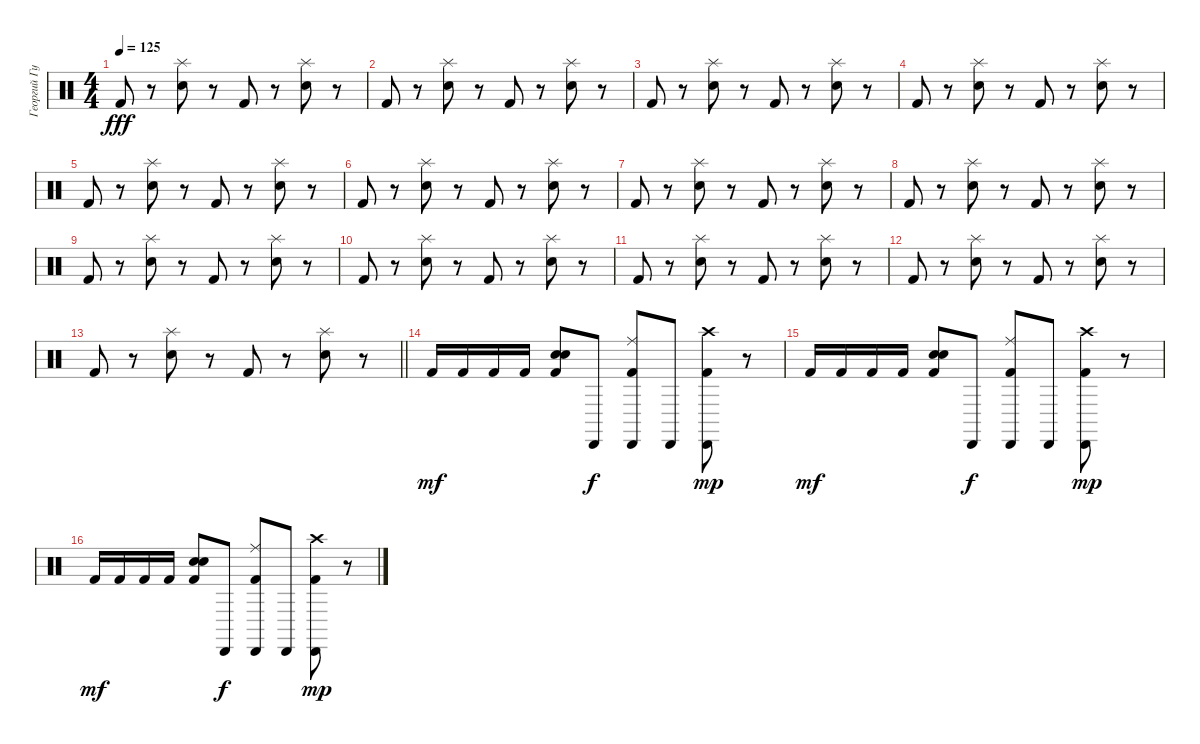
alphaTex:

\track ("Георгий Гурьянов" "Георгий Гу") {instrument percussion}
\staff {score}
\articulation defaults
\ts (4 4)
\tempo 125
\clef neutral
\ks c "Kick (hit) 2".8{dy fff}
r.8 ("Snare (hit) 2" "Splash (hit)").8 r.8 "Kick (hit) 2".8 r.8 ("Snare (hit) 2" "Splash (hit)").8 r.8 |
"Kick (hit) 2".8 r.8 ("Snare (hit) 2" "Splash (hit)").8 r.8 "Kick (hit) 2".8 r.8 ("Snare (hit) 2" "Splash (hit)").8 r.8 |
"Kick (hit) 2".8 r.8 ("Snare (hit) 2" "Splash (hit)").8 r.8 "Kick (hit) 2".8 r.8 ("Snare (hit) 2" "Splash (hit)").8 r.8 |
"Kick (hit) 2".8 r.8 ("Snare (hit) 2" "Splash (hit)").8 r.8 "Kick (hit) 2".8 r.8 ("Snare (hit) 2" "Splash (hit)").8 r.8 |
"Kick (hit) 2".8 r.8 ("Snare (hit) 2" "Splash (hit)").8 r.8 "Kick (hit) 2".8 r.8 ("Snare (hit) 2" "Splash (hit)").8 r.8 |
"Kick (hit) 2".8 r.8 ("Snare (hit) 2" "Splash (hit)").8 r.8 "Kick (hit) 2".8 r.8 ("Snare (hit) 2" "Splash (hit)").8 r.8 |
"Kick (hit) 2".8 r.8 ("Snare (hit) 2" "Splash (hit)").8 r.8 "Kick (hit) 2".8 r.8 ("Snare (hit) 2" "Splash (hit)").8 r.8 |
"Kick (hit) 2".8 r.8 ("Snare (hit) 2" "Splash (hit)").8 r.8 "Kick (hit) 2".8 r.8 ("Snare (hit) 2" "Splash (hit)").8 r.8 |
"Kick (hit) 2".8 r.8 ("Snare (hit) 2" "Splash (hit)").8 r.8 "Kick (hit) 2".8 r.8 ("Snare (hit) 2" "Splash (hit)").8 r.8 |
"Kick (hit) 2".8 r.8 ("Snare (hit) 2" "Splash (hit)").8 r.8 "Kick (hit) 2".8 r.8 ("Snare (hit) 2" "Splash (hit)").8 r.8 |
"Kick (hit) 2".8 r.8 ("Snare (hit) 2" "Splash (hit)").8 r.8 "Kick (hit) 2".8 r.8 ("Snare (hit) 2" "Splash (hit)").8 r.8 |
"Kick (hit) 2".8 r.8 ("Snare (hit) 2" "Splash (hit)").8 r.8 "Kick (hit) 2".8 r.8 ("Snare (hit) 2" "Splash (hit)").8 r.8 |
\barLineRight lightlight "Kick (hit) 2".8
r.8 ("Snare (hit) 2" "Splash (hit)").8 r.8 "Kick (hit) 2".8 r.8 ("Snare (hit) 2" "Splash (hit)").8 r.8 |
"Kick (hit) 2".16{dy mf} "Kick (hit) 2".16 "Kick (hit) 2".16 "Kick (hit) 2".16 ("Kick (hit) 2" "Snare (hit) 2" "Electric Snare (hit)").8 "Cabasa (hit)".8{dy f} ("Kick (hit) 2" "Cabasa (hit)" "Ride (middle)").8 "Cabasa (hit)".8 ("Kick (hit) 2" "Cabasa (hit)" "Crash high (hit)").8{dy mp} r.8 |
"Kick (hit) 2".16{dy mf} "Kick (hit) 2".16 "Kick (hit) 2".16 "Kick (hit) 2".16 ("Kick (hit) 2" "Snare (hit) 2" "Electric Snare (hit)").8 "Cabasa (hit)".8{dy f} ("Kick (hit) 2" "Cabasa (hit)" "Ride (middle)").8 "Cabasa (hit)".8 ("Kick (hit) 2" "Cabasa (hit)" "Crash high (hit)").8{dy mp} r.8 |
"Kick (hit) 2".16{dy mf} "Kick (hit) 2".16 "Kick (hit) 2".16 "Kick (hit) 2".16 ("Kick (hit) 2" "Snare (hit) 2" "Electric Snare (hit)").8 "Cabasa (hit)".8{dy f} ("Kick (hit) 2" "Cabasa (hit)" "Ride (middle)").8 "Cabasa (hit)".8 ("Kick (hit) 2" "Cabasa (hit)" "Crash high (hit)").8{dy mp} r.8
